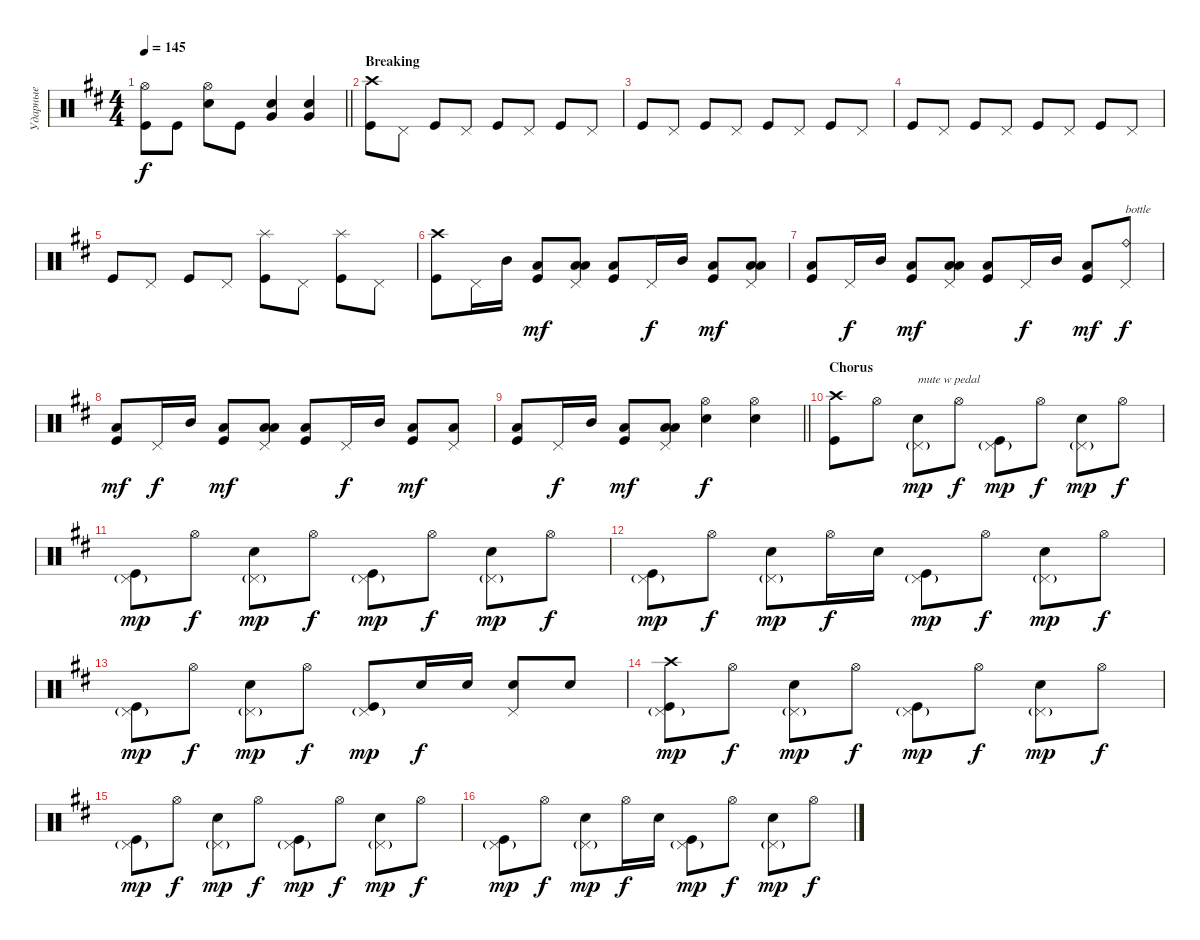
\track ("Ударные" "Ударные") {instrument percussion}
\staff {score}
\articulation defaults
\ts (4 4)
\tempo 145
\clef neutral
\barLineRight lightlight
\ks bminor
("Kick (hit)" "Hi-Hat (open)").8{dy f} "Kick (hit)".8 ("Snare (hit) 2" "Hi-Hat (open)").8 "Kick (hit)".8 ("Snare (hit) 2" "Very Low Tom (hit)").4{bd 120} ("Snare (hit) 2" "Very Low Tom (hit)").4{bd 120} |
\section ("" "Breaking")
("Kick (hit)" "Crash high (hit)").8 "Pedal Hi-Hat (hit)".8 "Kick (hit)".8 "Pedal Hi-Hat (hit)".8 "Kick (hit)".8 "Pedal Hi-Hat (hit)".8 "Kick (hit)".8 "Pedal Hi-Hat (hit)".8 |
"Kick (hit)".8 "Pedal Hi-Hat (hit)".8 "Kick (hit)".8 "Pedal Hi-Hat (hit)".8 "Kick (hit)".8 "Pedal Hi-Hat (hit)".8 "Kick (hit)".8 "Pedal Hi-Hat (hit)".8 |
"Kick (hit)".8 "Pedal Hi-Hat (hit)".8 "Kick (hit)".8 "Pedal Hi-Hat (hit)".8 "Kick (hit)".8 "Pedal Hi-Hat (hit)".8 "Kick (hit)".8 "Pedal Hi-Hat (hit)".8 |
"Kick (hit)".8 "Pedal Hi-Hat (hit)".8 "Kick (hit)".8 "Pedal Hi-Hat (hit)".8 ("Kick (hit)" "Splash (hit)").8 "Pedal Hi-Hat (hit)".8 ("Kick (hit)" "Splash (hit)").8 "Pedal Hi-Hat (hit)".8 |
("Kick (hit)" "Crash high (hit)").8 "Pedal Hi-Hat (hit)".16 "Mid Tom (hit)".16 ("Kick (hit)" "Low Floor Tom (hit)").8{bd 120 dy mf} ("Pedal Hi-Hat (hit)" "Low Tom (hit)" "Low Floor Tom (hit)").8{bd 120} ("Kick (hit)" "Low Floor Tom (hit)").8{bd 120} "Pedal Hi-Hat (hit)".16{dy f} "Mid Tom (hit)".16 ("Kick (hit)" "Low Floor Tom (hit)").8{bd 120 dy mf} ("Pedal Hi-Hat (hit)" "Low Tom (hit)" "Low Floor Tom (hit)").8{bd 120} |
("Kick (hit)" "Low Floor Tom (hit)").8{bd 120} "Pedal Hi-Hat (hit)".16{dy f} "Mid Tom (hit)".16 ("Kick (hit)" "Low Floor Tom (hit)").8{bd 120 dy mf} ("Pedal Hi-Hat (hit)" "Low Tom (hit)" "Low Floor Tom (hit)").8{bd 120} ("Kick (hit)" "Low Floor Tom (hit)").8{bd 120} "Pedal Hi-Hat (hit)".16{dy f} "Mid Tom (hit)".16 ("Kick (hit)" "Low Floor Tom (hit)").8{bd 120 dy mf} ("Pedal Hi-Hat (hit)" "Ride (bell)").8{txt "bottle" dy f} |
("Kick (hit)" "Low Floor Tom (hit)").8{bd 120 dy mf} "Pedal Hi-Hat (hit)".16{dy f} "Mid Tom (hit)".16 ("Kick (hit)" "Low Floor Tom (hit)").8{bd 120 dy mf} ("Pedal Hi-Hat (hit)" "Low Tom (hit)" "Low Floor Tom (hit)").8{bd 120} ("Kick (hit)" "Low Floor Tom (hit)").8{bd 120} "Pedal Hi-Hat (hit)".16{dy f} "Mid Tom (hit)".16 ("Kick (hit)" "Low Floor Tom (hit)").8{bd 120 dy mf} ("Pedal Hi-Hat (hit)" "Low Floor Tom (hit)").8 |
\barLineRight lightlight
("Kick (hit)" "Low Floor Tom (hit)").8{bd 120} "Pedal Hi-Hat (hit)".16{dy f} "Mid Tom (hit)".16 ("Kick (hit)" "Low Floor Tom (hit)").8{bd 120 dy mf} ("Pedal Hi-Hat (hit)" "Low Tom (hit)" "Low Floor Tom (hit)").8{bd 120} ("Snare (hit) 2" "Hi-Hat (open)").4{dy f} ("Snare (hit) 2" "Hi-Hat (open)").4 |
\section ("" "Chorus")
("Kick (hit)" "Crash high (hit)").8 "Hi-Hat (open)".8 ("Snare (hit) 2" "Pedal Hi-Hat (hit)"{g}).8{txt "mute w pedal" dy mp} "Hi-Hat (open)".8{dy f} ("Pedal Hi-Hat (hit)"{g} "Kick (hit)").8{dy mp} "Hi-Hat (open)".8{dy f} ("Snare (hit) 2" "Pedal Hi-Hat (hit)"{g}).8{dy mp} "Hi-Hat (open)".8{dy f} |
("Pedal Hi-Hat (hit)"{g} "Kick (hit)").8{dy mp} "Hi-Hat (open)".8{dy f} ("Snare (hit) 2" "Pedal Hi-Hat (hit)"{g}).8{dy mp} "Hi-Hat (open)".8{dy f} ("Pedal Hi-Hat (hit)"{g} "Kick (hit)").8{dy mp} "Hi-Hat (open)".8{dy f} ("Snare (hit) 2" "Pedal Hi-Hat (hit)"{g}).8{dy mp} "Hi-Hat (open)".8{dy f} |
("Pedal Hi-Hat (hit)"{g} "Kick (hit)").8{dy mp} "Hi-Hat (open)".8{dy f} ("Snare (hit) 2" "Pedal Hi-Hat (hit)"{g}).8{dy mp} "Hi-Hat (open)".16{dy f} "Snare (hit) 2".16 ("Pedal Hi-Hat (hit)"{g} "Kick (hit)").8{dy mp} "Hi-Hat (open)".8{dy f} ("Snare (hit) 2" "Pedal Hi-Hat (hit)"{g}).8{dy mp} "Hi-Hat (open)".8{dy f} |
("Pedal Hi-Hat (hit)"{g} "Kick (hit)").8{dy mp} "Hi-Hat (open)".8{dy f} ("Snare (hit) 2" "Pedal Hi-Hat (hit)"{g}).8{dy mp} "Hi-Hat (open)".8{dy f} ("Pedal Hi-Hat (hit)"{g} "Kick (hit)").8{dy mp} "Snare (hit) 2".16{dy f} "Snare (hit) 2".16 ("Snare (hit) 2" "Pedal Hi-Hat (hit)").8 "Snare (hit) 2".8 |
("Pedal Hi-Hat (hit)"{g} "Kick (hit)" "Crash high (hit)").8{dy mp} "Hi-Hat (open)".8{dy f} ("Snare (hit) 2" "Pedal Hi-Hat (hit)"{g}).8{dy mp} "Hi-Hat (open)".8{dy f} ("Pedal Hi-Hat (hit)"{g} "Kick (hit)").8{dy mp} "Hi-Hat (open)".8{dy f} ("Snare (hit) 2" "Pedal Hi-Hat (hit)"{g}).8{dy mp} "Hi-Hat (open)".8{dy f} |
("Pedal Hi-Hat (hit)"{g} "Kick (hit)").8{dy mp} "Hi-Hat (open)".8{dy f} ("Snare (hit) 2" "Pedal Hi-Hat (hit)"{g}).8{dy mp} "Hi-Hat (open)".8{dy f} ("Pedal Hi-Hat (hit)"{g} "Kick (hit)").8{dy mp} "Hi-Hat (open)".8{dy f} ("Snare (hit) 2" "Pedal Hi-Hat (hit)"{g}).8{dy mp} "Hi-Hat (open)".8{dy f} |
("Pedal Hi-Hat (hit)"{g} "Kick (hit)").8{dy mp} "Hi-Hat (open)".8{dy f} ("Snare (hit) 2" "Pedal Hi-Hat (hit)"{g}).8{dy mp} "Hi-Hat (open)".16{dy f} "Snare (hit) 2".16 ("Pedal Hi-Hat (hit)"{g} "Kick (hit)").8{dy mp} "Hi-Hat (open)".8{dy f} ("Snare (hit) 2" "Pedal Hi-Hat (hit)"{g}).8{dy mp} "Hi-Hat (open)".8{dy f}
